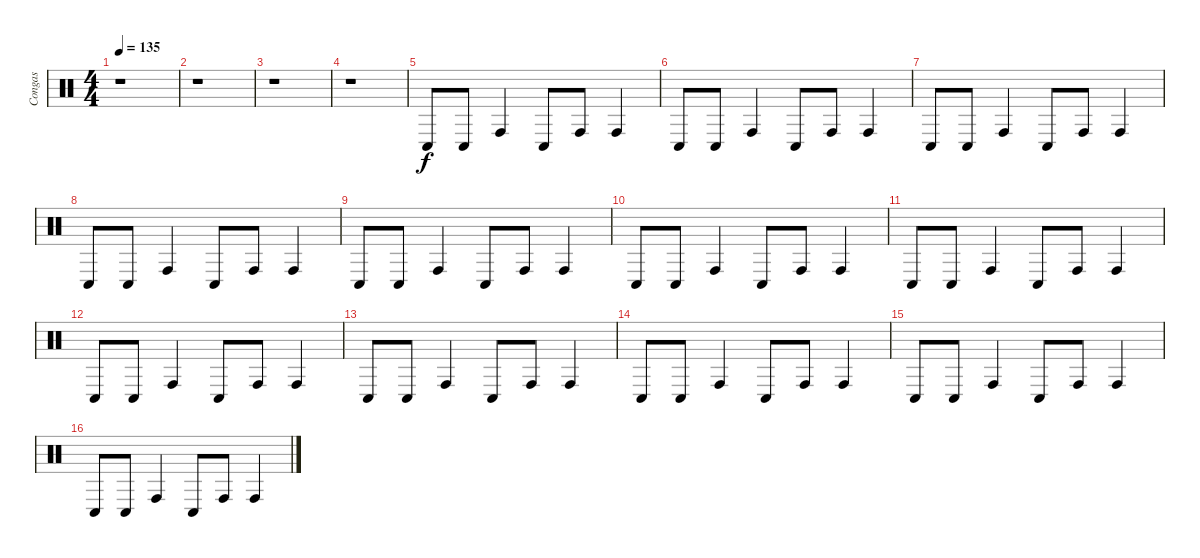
\track ("Congas" "Congas") {instrument percussion}
\staff {score}
\articulation defaults
\ts (4 4)
\tempo 135
\clef neutral
\ks c
r.1{dy f} |
r.1 |
r.1 |
r.1 |
"Conga low (hit)".8 "Conga low (hit)".8 "Conga high (hit)".4 "Conga low (hit)".8 "Conga high (hit)".8 "Conga high (hit)".4 |
"Conga low (hit)".8 "Conga low (hit)".8 "Conga high (hit)".4 "Conga low (hit)".8 "Conga high (hit)".8 "Conga high (hit)".4 |
"Conga low (hit)".8 "Conga low (hit)".8 "Conga high (hit)".4 "Conga low (hit)".8 "Conga high (hit)".8 "Conga high (hit)".4 |
"Conga low (hit)".8 "Conga low (hit)".8 "Conga high (hit)".4 "Conga low (hit)".8 "Conga high (hit)".8 "Conga high (hit)".4 |
"Conga low (hit)".8 "Conga low (hit)".8 "Conga high (hit)".4 "Conga low (hit)".8 "Conga high (hit)".8 "Conga high (hit)".4 |
"Conga low (hit)".8 "Conga low (hit)".8 "Conga high (hit)".4 "Conga low (hit)".8 "Conga high (hit)".8 "Conga high (hit)".4 |
"Conga low (hit)".8 "Conga low (hit)".8 "Conga high (hit)".4 "Conga low (hit)".8 "Conga high (hit)".8 "Conga high (hit)".4 |
"Conga low (hit)".8 "Conga low (hit)".8 "Conga high (hit)".4 "Conga low (hit)".8 "Conga high (hit)".8 "Conga high (hit)".4 |
"Conga low (hit)".8 "Conga low (hit)".8 "Conga high (hit)".4 "Conga low (hit)".8 "Conga high (hit)".8 "Conga high (hit)".4 |
"Conga low (hit)".8 "Conga low (hit)".8 "Conga high (hit)".4 "Conga low (hit)".8 "Conga high (hit)".8 "Conga high (hit)".4 |
"Conga low (hit)".8 "Conga low (hit)".8 "Conga high (hit)".4 "Conga low (hit)".8 "Conga high (hit)".8 "Conga high (hit)".4 |
"Conga low (hit)".8 "Conga low (hit)".8 "Conga high (hit)".4 "Conga low (hit)".8 "Conga high (hit)".8 "Conga high (hit)".4
